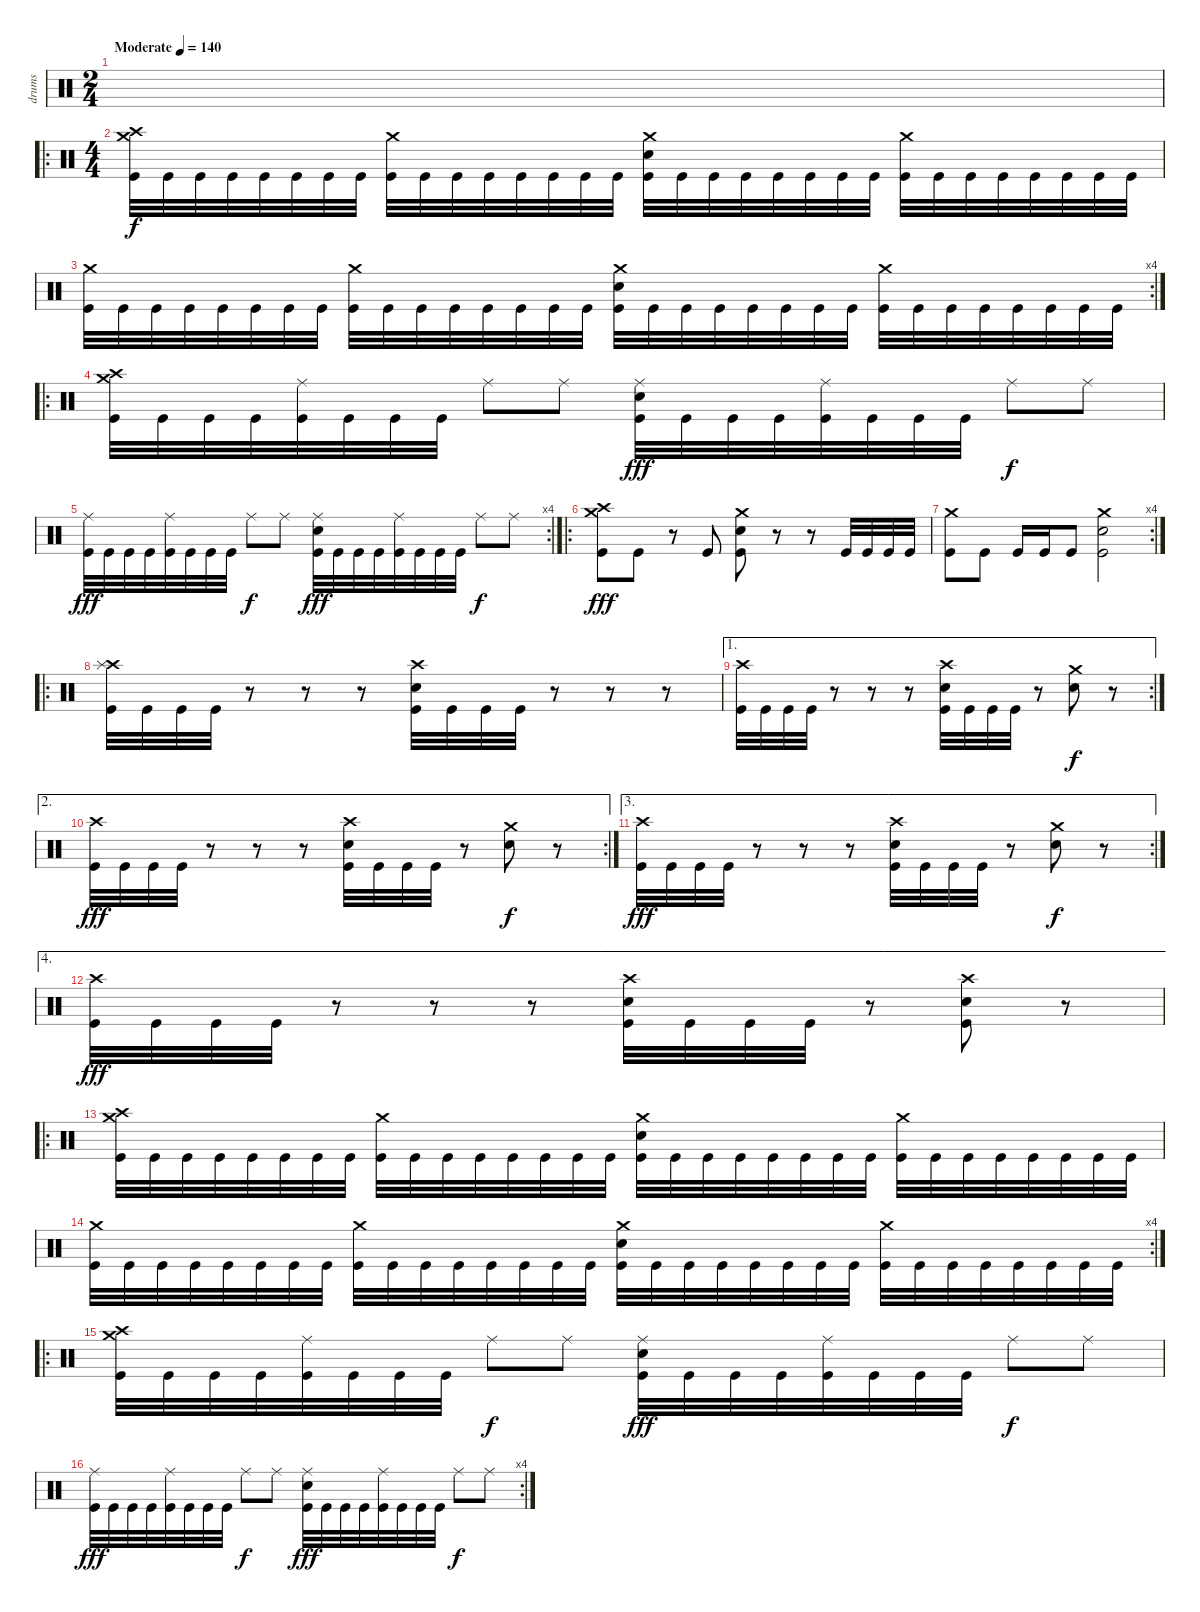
\track ("drums" "drums") {instrument percussion}
\staff
\articulation defaults
\ts (2 4)
\tempo (140 "Moderate")
\clef neutral
\ks c
|
\ro
\ts (4 4)
("Crash medium (hit)" "Crash high (hit)" "Kick (hit)").32 "Kick (hit)".32 "Kick (hit)".32 "Kick (hit)".32 "Kick (hit)".32 "Kick (hit)".32 "Kick (hit)".32 "Kick (hit)".32 ("Crash medium (hit)" "Kick (hit)").32 "Kick (hit)".32 "Kick (hit)".32 "Kick (hit)".32 "Kick (hit)".32 "Kick (hit)".32 "Kick (hit)".32 "Kick (hit)".32 ("Crash medium (hit)" "Snare (hit) 2" "Kick (hit)").32 "Kick (hit)".32 "Kick (hit)".32 "Kick (hit)".32 "Kick (hit)".32 "Kick (hit)".32 "Kick (hit)".32 "Kick (hit)".32 ("Crash medium (hit)" "Kick (hit)").32 "Kick (hit)".32 "Kick (hit)".32 "Kick (hit)".32 "Kick (hit)".32 "Kick (hit)".32 "Kick (hit)".32 "Kick (hit)".32 |
\rc 4
("Crash medium (hit)" "Kick (hit)").32 "Kick (hit)".32 "Kick (hit)".32 "Kick (hit)".32 "Kick (hit)".32 "Kick (hit)".32 "Kick (hit)".32 "Kick (hit)".32 ("Crash medium (hit)" "Kick (hit)").32 "Kick (hit)".32 "Kick (hit)".32 "Kick (hit)".32 "Kick (hit)".32 "Kick (hit)".32 "Kick (hit)".32 "Kick (hit)".32 ("Crash medium (hit)" "Snare (hit) 2" "Kick (hit)").32 "Kick (hit)".32 "Kick (hit)".32 "Kick (hit)".32 "Kick (hit)".32 "Kick (hit)".32 "Kick (hit)".32 "Kick (hit)".32 ("Crash medium (hit)" "Kick (hit)").32 "Kick (hit)".32 "Kick (hit)".32 "Kick (hit)".32 "Kick (hit)".32 "Kick (hit)".32 "Kick (hit)".32 "Kick (hit)".32 |
\ro
("Crash medium (hit)" "Crash high (hit)" "Kick (hit)").32 "Kick (hit)".32 "Kick (hit)".32 "Kick (hit)".32 ("Ride (middle)" "Kick (hit)").32 "Kick (hit)".32 "Kick (hit)".32 "Kick (hit)".32 "Ride (middle)".8{dy f} "Ride (middle)".8 ("Ride (middle)" "Snare (hit) 2" "Kick (hit)").32{dy fff} "Kick (hit)".32 "Kick (hit)".32 "Kick (hit)".32 ("Ride (middle)" "Kick (hit)").32 "Kick (hit)".32 "Kick (hit)".32 "Kick (hit)".32 "Ride (middle)".8{dy f} "Ride (middle)".8 |
\rc 4
("Ride (middle)" "Kick (hit)").32{dy fff} "Kick (hit)".32 "Kick (hit)".32 "Kick (hit)".32 ("Ride (middle)" "Kick (hit)").32 "Kick (hit)".32 "Kick (hit)".32 "Kick (hit)".32 "Ride (middle)".8{dy f} "Ride (middle)".8 ("Ride (middle)" "Snare (hit) 2" "Kick (hit)").32{dy fff} "Kick (hit)".32 "Kick (hit)".32 "Kick (hit)".32 ("Ride (middle)" "Kick (hit)").32 "Kick (hit)".32 "Kick (hit)".32 "Kick (hit)".32 "Ride (middle)".8{dy f} "Ride (middle)".8 |
\ro
("Crash high (hit)" "Crash medium (hit)" "Kick (hit)").8{dy fff} "Kick (hit)".8 r.8 "Kick (hit)".8 ("Crash medium (hit)" "Snare (hit) 2" "Kick (hit)").8 r.8 r.8 "Kick (hit)".32 "Kick (hit)".32 "Kick (hit)".32 "Kick (hit)".32 |
\rc 4
("Crash medium (hit)" "Kick (hit)").8 "Kick (hit)".8 "Kick (hit)".16 "Kick (hit)".16 "Kick (hit)".8 ("Crash medium (hit)" "Snare (hit) 2" "Kick (hit)").2 |
\ro
("Crash high (hit)" "Splash (hit)" "Kick (hit)").32 "Kick (hit)".32 "Kick (hit)".32 "Kick (hit)".32 r.8 r.8 r.8 ("Crash high (hit)" "Snare (hit) 2" "Kick (hit)").32 "Kick (hit)".32 "Kick (hit)".32 "Kick (hit)".32 r.8 r.8 r.8 |
\ae 1
\rc 2
("Crash high (hit)" "Kick (hit)").32 "Kick (hit)".32 "Kick (hit)".32 "Kick (hit)".32 r.8 r.8 r.8 ("Crash high (hit)" "Snare (hit) 2" "Kick (hit)").32 "Kick (hit)".32 "Kick (hit)".32 "Kick (hit)".32 r.8 ("Crash medium (hit)" "Snare (hit) 2").8{dy f} r.8 |
\ae 2
\rc 2
("Crash high (hit)" "Kick (hit)").32{dy fff} "Kick (hit)".32 "Kick (hit)".32 "Kick (hit)".32 r.8 r.8 r.8 ("Crash high (hit)" "Snare (hit) 2" "Kick (hit)").32 "Kick (hit)".32 "Kick (hit)".32 "Kick (hit)".32 r.8 ("Crash medium (hit)" "Snare (hit) 2").8{dy f} r.8 |
\ae 3
\rc 2
("Crash high (hit)" "Kick (hit)").32{dy fff} "Kick (hit)".32 "Kick (hit)".32 "Kick (hit)".32 r.8 r.8 r.8 ("Crash high (hit)" "Snare (hit) 2" "Kick (hit)").32 "Kick (hit)".32 "Kick (hit)".32 "Kick (hit)".32 r.8 ("Crash medium (hit)" "Snare (hit) 2").8{dy f} r.8 |
\ae 4
("Crash high (hit)" "Kick (hit)").32{dy fff} "Kick (hit)".32 "Kick (hit)".32 "Kick (hit)".32 r.8 r.8 r.8 ("Crash high (hit)" "Snare (hit) 2" "Kick (hit)").32 "Kick (hit)".32 "Kick (hit)".32 "Kick (hit)".32 r.8 ("Crash high (hit)" "Snare (hit) 2" "Kick (hit)").8 r.8 |
\ro
("Crash medium (hit)" "Crash high (hit)" "Kick (hit)").32 "Kick (hit)".32 "Kick (hit)".32 "Kick (hit)".32 "Kick (hit)".32 "Kick (hit)".32 "Kick (hit)".32 "Kick (hit)".32 ("Crash medium (hit)" "Kick (hit)").32 "Kick (hit)".32 "Kick (hit)".32 "Kick (hit)".32 "Kick (hit)".32 "Kick (hit)".32 "Kick (hit)".32 "Kick (hit)".32 ("Crash medium (hit)" "Snare (hit) 2" "Kick (hit)").32 "Kick (hit)".32 "Kick (hit)".32 "Kick (hit)".32 "Kick (hit)".32 "Kick (hit)".32 "Kick (hit)".32 "Kick (hit)".32 ("Crash medium (hit)" "Kick (hit)").32 "Kick (hit)".32 "Kick (hit)".32 "Kick (hit)".32 "Kick (hit)".32 "Kick (hit)".32 "Kick (hit)".32 "Kick (hit)".32 |
\rc 4
("Crash medium (hit)" "Kick (hit)").32 "Kick (hit)".32 "Kick (hit)".32 "Kick (hit)".32 "Kick (hit)".32 "Kick (hit)".32 "Kick (hit)".32 "Kick (hit)".32 ("Crash medium (hit)" "Kick (hit)").32 "Kick (hit)".32 "Kick (hit)".32 "Kick (hit)".32 "Kick (hit)".32 "Kick (hit)".32 "Kick (hit)".32 "Kick (hit)".32 ("Crash medium (hit)" "Snare (hit) 2" "Kick (hit)").32 "Kick (hit)".32 "Kick (hit)".32 "Kick (hit)".32 "Kick (hit)".32 "Kick (hit)".32 "Kick (hit)".32 "Kick (hit)".32 ("Crash medium (hit)" "Kick (hit)").32 "Kick (hit)".32 "Kick (hit)".32 "Kick (hit)".32 "Kick (hit)".32 "Kick (hit)".32 "Kick (hit)".32 "Kick (hit)".32 |
\ro
("Crash medium (hit)" "Crash high (hit)" "Kick (hit)").32 "Kick (hit)".32 "Kick (hit)".32 "Kick (hit)".32 ("Ride (middle)" "Kick (hit)").32 "Kick (hit)".32 "Kick (hit)".32 "Kick (hit)".32 "Ride (middle)".8{dy f} "Ride (middle)".8 ("Ride (middle)" "Snare (hit) 2" "Kick (hit)").32{dy fff} "Kick (hit)".32 "Kick (hit)".32 "Kick (hit)".32 ("Ride (middle)" "Kick (hit)").32 "Kick (hit)".32 "Kick (hit)".32 "Kick (hit)".32 "Ride (middle)".8{dy f} "Ride (middle)".8 |
\rc 4
("Ride (middle)" "Kick (hit)").32{dy fff} "Kick (hit)".32 "Kick (hit)".32 "Kick (hit)".32 ("Ride (middle)" "Kick (hit)").32 "Kick (hit)".32 "Kick (hit)".32 "Kick (hit)".32 "Ride (middle)".8{dy f} "Ride (middle)".8 ("Ride (middle)" "Snare (hit) 2" "Kick (hit)").32{dy fff} "Kick (hit)".32 "Kick (hit)".32 "Kick (hit)".32 ("Ride (middle)" "Kick (hit)").32 "Kick (hit)".32 "Kick (hit)".32 "Kick (hit)".32 "Ride (middle)".8{dy f} "Ride (middle)".8
